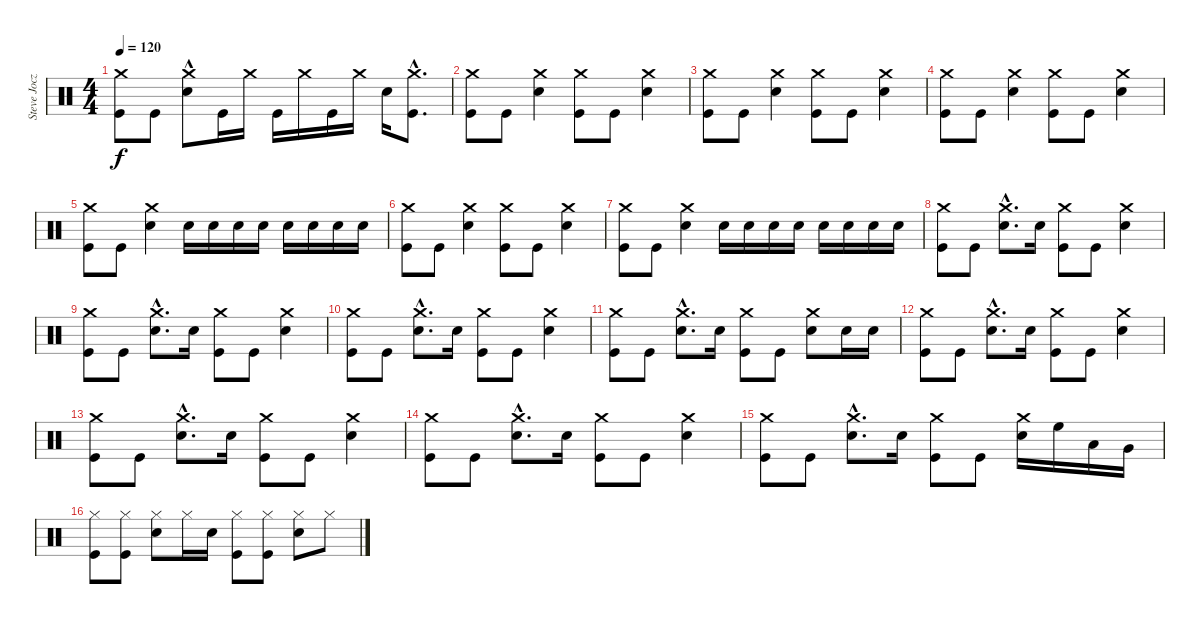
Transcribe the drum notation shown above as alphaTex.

\track ("Steve Jocz (STEVO)" "Steve Jocz") {instrument percussion}
\staff {score}
\articulation defaults
\ts (4 4)
\tempo 120
\clef neutral
\ks c
("Crash medium (hit)" "Kick (hit)").8{dy f} "Kick (hit)".8 ("Crash medium (hit)" "Snare (hit) 2"{hac}).8 "Kick (hit)".16 "Crash medium (hit)".16 "Kick (hit)".16 "Crash medium (hit)".16 "Kick (hit)".16 "Crash medium (hit)".16 "Snare (hit) 2".16 ("Crash medium (hit)"{hac} "Kick (hit)"{hac}).8{d} |
("Crash medium (hit)" "Kick (hit)").8 "Kick (hit)".8 ("Crash medium (hit)" "Snare (hit) 2").4 ("Crash medium (hit)" "Kick (hit)").8 "Kick (hit)".8 ("Crash medium (hit)" "Snare (hit) 2").4 |
("Crash medium (hit)" "Kick (hit)").8 "Kick (hit)".8 ("Crash medium (hit)" "Snare (hit) 2").4 ("Crash medium (hit)" "Kick (hit)").8 "Kick (hit)".8 ("Crash medium (hit)" "Snare (hit) 2").4 |
("Crash medium (hit)" "Kick (hit)").8 "Kick (hit)".8 ("Crash medium (hit)" "Snare (hit) 2").4 ("Crash medium (hit)" "Kick (hit)").8 "Kick (hit)".8 ("Crash medium (hit)" "Snare (hit) 2").4 |
("Crash medium (hit)" "Kick (hit)").8 "Kick (hit)".8 ("Crash medium (hit)" "Snare (hit) 2").4 "Snare (hit) 2".16 "Snare (hit) 2".16 "Snare (hit) 2".16 "Snare (hit) 2".16 "Snare (hit) 2".16 "Snare (hit) 2".16 "Snare (hit) 2".16 "Snare (hit) 2".16 |
("Crash medium (hit)" "Kick (hit)").8 "Kick (hit)".8 ("Crash medium (hit)" "Snare (hit) 2").4 ("Crash medium (hit)" "Kick (hit)").8 "Kick (hit)".8 ("Crash medium (hit)" "Snare (hit) 2").4 |
("Crash medium (hit)" "Kick (hit)").8 "Kick (hit)".8 ("Crash medium (hit)" "Snare (hit) 2").4 "Snare (hit) 2".16 "Snare (hit) 2".16 "Snare (hit) 2".16 "Snare (hit) 2".16 "Snare (hit) 2".16 "Snare (hit) 2".16 "Snare (hit) 2".16 "Snare (hit) 2".16 |
("Crash medium (hit)" "Kick (hit)").8 "Kick (hit)".8 ("Crash medium (hit)"{hac} "Snare (hit) 2"{hac}).8{d} "Snare (hit) 2".16 ("Crash medium (hit)" "Kick (hit)").8 "Kick (hit)".8 ("Crash medium (hit)" "Snare (hit) 2").4 |
("Crash medium (hit)" "Kick (hit)").8 "Kick (hit)".8 ("Crash medium (hit)"{hac} "Snare (hit) 2"{hac}).8{d} "Snare (hit) 2".16 ("Crash medium (hit)" "Kick (hit)").8 "Kick (hit)".8 ("Crash medium (hit)" "Snare (hit) 2").4 |
("Crash medium (hit)" "Kick (hit)").8 "Kick (hit)".8 ("Crash medium (hit)"{hac} "Snare (hit) 2"{hac}).8{d} "Snare (hit) 2".16 ("Crash medium (hit)" "Kick (hit)").8 "Kick (hit)".8 ("Crash medium (hit)" "Snare (hit) 2").4 |
("Crash medium (hit)" "Kick (hit)").8 "Kick (hit)".8 ("Crash medium (hit)"{hac} "Snare (hit) 2"{hac}).8{d} "Snare (hit) 2".16 ("Crash medium (hit)" "Kick (hit)").8 "Kick (hit)".8 ("Crash medium (hit)" "Snare (hit) 2").8 "Snare (hit) 2".16 "Snare (hit) 2".16 |
("Crash medium (hit)" "Kick (hit)").8 "Kick (hit)".8 ("Crash medium (hit)"{hac} "Snare (hit) 2"{hac}).8{d} "Snare (hit) 2".16 ("Crash medium (hit)" "Kick (hit)").8 "Kick (hit)".8 ("Crash medium (hit)" "Snare (hit) 2").4 |
("Crash medium (hit)" "Kick (hit)").8 "Kick (hit)".8 ("Crash medium (hit)"{hac} "Snare (hit) 2"{hac}).8{d} "Snare (hit) 2".16 ("Crash medium (hit)" "Kick (hit)").8 "Kick (hit)".8 ("Crash medium (hit)" "Snare (hit) 2").4 |
("Crash medium (hit)" "Kick (hit)").8 "Kick (hit)".8 ("Crash medium (hit)"{hac} "Snare (hit) 2"{hac}).8{d} "Snare (hit) 2".16 ("Crash medium (hit)" "Kick (hit)").8 "Kick (hit)".8 ("Crash medium (hit)" "Snare (hit) 2").4 |
("Crash medium (hit)" "Kick (hit)").8 "Kick (hit)".8 ("Crash medium (hit)"{hac} "Snare (hit) 2"{hac}).8{d} "Snare (hit) 2".16 ("Crash medium (hit)" "Kick (hit)").8 "Kick (hit)".8 ("Crash medium (hit)" "Snare (hit) 2").16 "High Floor Tom (hit)".16 "Low Tom (hit)".16 "Very Low Tom (hit)".16 |
("Hi-Hat (closed)" "Kick (hit)").8 ("Hi-Hat (closed)" "Kick (hit)").8 ("Hi-Hat (closed)" "Snare (hit) 2").8 "Hi-Hat (closed)".16 "Snare (hit) 2".16 ("Hi-Hat (closed)" "Kick (hit)").8 ("Hi-Hat (closed)" "Kick (hit)").8 ("Hi-Hat (closed)" "Snare (hit) 2").8 "Hi-Hat (closed)".8
